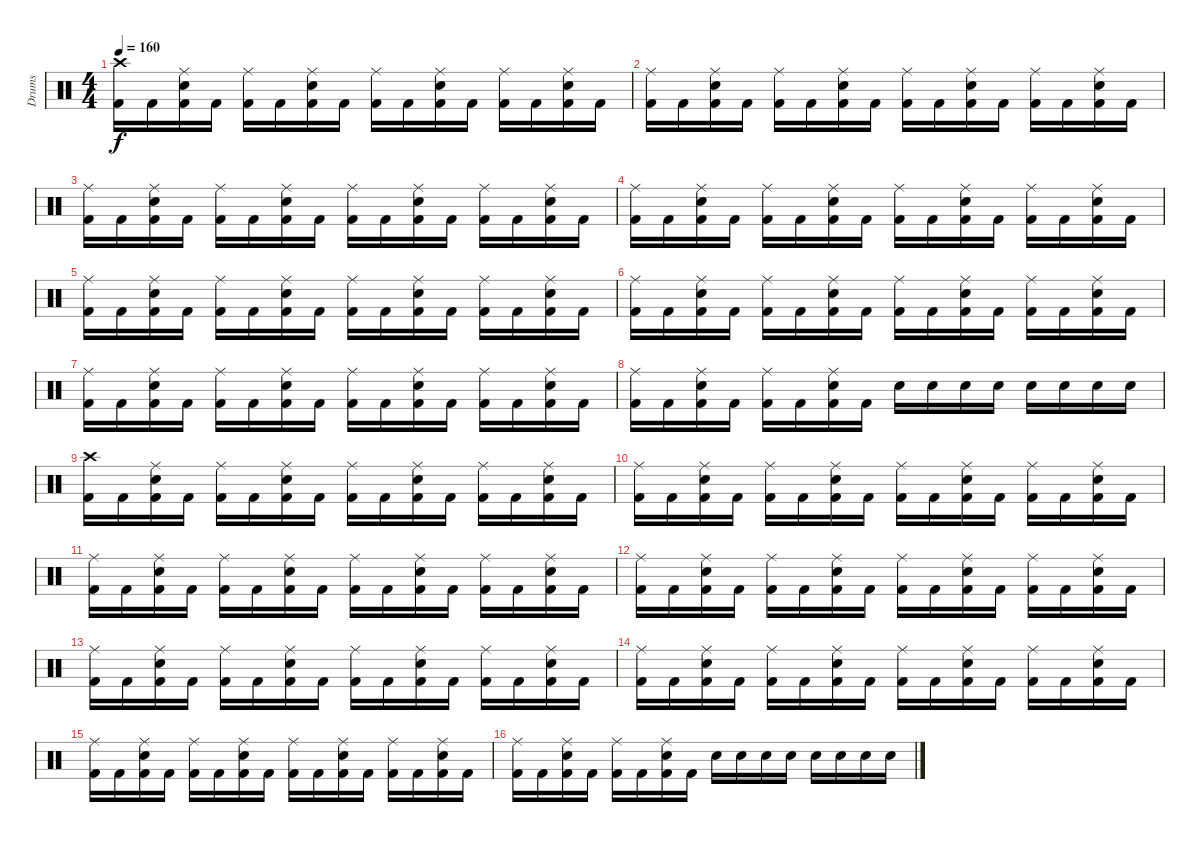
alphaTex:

\track ("Drums" "Drums") {instrument percussion}
\staff {score}
\articulation defaults
\ts (4 4)
\tempo 160
\clef neutral
\ks c
("Crash high (hit)" "Kick (hit) 2").16{dy f} "Kick (hit) 2".16 ("Ride (middle)" "Electric Snare (hit)" "Kick (hit) 2").16 "Kick (hit) 2".16 ("Ride (middle)" "Kick (hit) 2").16 "Kick (hit) 2".16 ("Ride (middle)" "Electric Snare (hit)" "Kick (hit) 2").16 "Kick (hit) 2".16 ("Ride (middle)" "Kick (hit) 2").16 "Kick (hit) 2".16 ("Ride (middle)" "Electric Snare (hit)" "Kick (hit) 2").16 "Kick (hit) 2".16 ("Ride (middle)" "Kick (hit) 2").16 "Kick (hit) 2".16 ("Ride (middle)" "Electric Snare (hit)" "Kick (hit) 2").16 "Kick (hit) 2".16 |
("Ride (middle)" "Kick (hit) 2").16 "Kick (hit) 2".16 ("Ride (middle)" "Electric Snare (hit)" "Kick (hit) 2").16 "Kick (hit) 2".16 ("Ride (middle)" "Kick (hit) 2").16 "Kick (hit) 2".16 ("Ride (middle)" "Electric Snare (hit)" "Kick (hit) 2").16 "Kick (hit) 2".16 ("Ride (middle)" "Kick (hit) 2").16 "Kick (hit) 2".16 ("Ride (middle)" "Electric Snare (hit)" "Kick (hit) 2").16 "Kick (hit) 2".16 ("Ride (middle)" "Kick (hit) 2").16 "Kick (hit) 2".16 ("Ride (middle)" "Electric Snare (hit)" "Kick (hit) 2").16 "Kick (hit) 2".16 |
("Ride (middle)" "Kick (hit) 2").16 "Kick (hit) 2".16 ("Ride (middle)" "Electric Snare (hit)" "Kick (hit) 2").16 "Kick (hit) 2".16 ("Ride (middle)" "Kick (hit) 2").16 "Kick (hit) 2".16 ("Ride (middle)" "Electric Snare (hit)" "Kick (hit) 2").16 "Kick (hit) 2".16 ("Ride (middle)" "Kick (hit) 2").16 "Kick (hit) 2".16 ("Ride (middle)" "Electric Snare (hit)" "Kick (hit) 2").16 "Kick (hit) 2".16 ("Ride (middle)" "Kick (hit) 2").16 "Kick (hit) 2".16 ("Ride (middle)" "Electric Snare (hit)" "Kick (hit) 2").16 "Kick (hit) 2".16 |
("Ride (middle)" "Kick (hit) 2").16 "Kick (hit) 2".16 ("Ride (middle)" "Electric Snare (hit)" "Kick (hit) 2").16 "Kick (hit) 2".16 ("Ride (middle)" "Kick (hit) 2").16 "Kick (hit) 2".16 ("Ride (middle)" "Electric Snare (hit)" "Kick (hit) 2").16 "Kick (hit) 2".16 ("Ride (middle)" "Kick (hit) 2").16 "Kick (hit) 2".16 ("Ride (middle)" "Electric Snare (hit)" "Kick (hit) 2").16 "Kick (hit) 2".16 ("Ride (middle)" "Kick (hit) 2").16 "Kick (hit) 2".16 ("Ride (middle)" "Electric Snare (hit)" "Kick (hit) 2").16 "Kick (hit) 2".16 |
("Ride (middle)" "Kick (hit) 2").16 "Kick (hit) 2".16 ("Ride (middle)" "Electric Snare (hit)" "Kick (hit) 2").16 "Kick (hit) 2".16 ("Ride (middle)" "Kick (hit) 2").16 "Kick (hit) 2".16 ("Ride (middle)" "Electric Snare (hit)" "Kick (hit) 2").16 "Kick (hit) 2".16 ("Ride (middle)" "Kick (hit) 2").16 "Kick (hit) 2".16 ("Ride (middle)" "Electric Snare (hit)" "Kick (hit) 2").16 "Kick (hit) 2".16 ("Ride (middle)" "Kick (hit) 2").16 "Kick (hit) 2".16 ("Ride (middle)" "Electric Snare (hit)" "Kick (hit) 2").16 "Kick (hit) 2".16 |
("Ride (middle)" "Kick (hit) 2").16 "Kick (hit) 2".16 ("Ride (middle)" "Electric Snare (hit)" "Kick (hit) 2").16 "Kick (hit) 2".16 ("Ride (middle)" "Kick (hit) 2").16 "Kick (hit) 2".16 ("Ride (middle)" "Electric Snare (hit)" "Kick (hit) 2").16 "Kick (hit) 2".16 ("Ride (middle)" "Kick (hit) 2").16 "Kick (hit) 2".16 ("Ride (middle)" "Electric Snare (hit)" "Kick (hit) 2").16 "Kick (hit) 2".16 ("Ride (middle)" "Kick (hit) 2").16 "Kick (hit) 2".16 ("Ride (middle)" "Electric Snare (hit)" "Kick (hit) 2").16 "Kick (hit) 2".16 |
("Ride (middle)" "Kick (hit) 2").16 "Kick (hit) 2".16 ("Ride (middle)" "Electric Snare (hit)" "Kick (hit) 2").16 "Kick (hit) 2".16 ("Ride (middle)" "Kick (hit) 2").16 "Kick (hit) 2".16 ("Ride (middle)" "Electric Snare (hit)" "Kick (hit) 2").16 "Kick (hit) 2".16 ("Ride (middle)" "Kick (hit) 2").16 "Kick (hit) 2".16 ("Ride (middle)" "Electric Snare (hit)" "Kick (hit) 2").16 "Kick (hit) 2".16 ("Ride (middle)" "Kick (hit) 2").16 "Kick (hit) 2".16 ("Ride (middle)" "Electric Snare (hit)" "Kick (hit) 2").16 "Kick (hit) 2".16 |
("Ride (middle)" "Kick (hit) 2").16 "Kick (hit) 2".16 ("Ride (middle)" "Electric Snare (hit)" "Kick (hit) 2").16 "Kick (hit) 2".16 ("Ride (middle)" "Kick (hit) 2").16 "Kick (hit) 2".16 ("Ride (middle)" "Electric Snare (hit)" "Kick (hit) 2").16 "Kick (hit) 2".16 "Electric Snare (hit)".16 "Electric Snare (hit)".16 "Electric Snare (hit)".16 "Electric Snare (hit)".16 "Electric Snare (hit)".16 "Electric Snare (hit)".16 "Electric Snare (hit)".16 "Electric Snare (hit)".16 |
("Crash high (hit)" "Kick (hit) 2").16 "Kick (hit) 2".16 ("Ride (middle)" "Electric Snare (hit)" "Kick (hit) 2").16 "Kick (hit) 2".16 ("Ride (middle)" "Kick (hit) 2").16 "Kick (hit) 2".16 ("Ride (middle)" "Electric Snare (hit)" "Kick (hit) 2").16 "Kick (hit) 2".16 ("Ride (middle)" "Kick (hit) 2").16 "Kick (hit) 2".16 ("Ride (middle)" "Electric Snare (hit)" "Kick (hit) 2").16 "Kick (hit) 2".16 ("Ride (middle)" "Kick (hit) 2").16 "Kick (hit) 2".16 ("Ride (middle)" "Electric Snare (hit)" "Kick (hit) 2").16 "Kick (hit) 2".16 |
("Ride (middle)" "Kick (hit) 2").16 "Kick (hit) 2".16 ("Ride (middle)" "Electric Snare (hit)" "Kick (hit) 2").16 "Kick (hit) 2".16 ("Ride (middle)" "Kick (hit) 2").16 "Kick (hit) 2".16 ("Ride (middle)" "Electric Snare (hit)" "Kick (hit) 2").16 "Kick (hit) 2".16 ("Ride (middle)" "Kick (hit) 2").16 "Kick (hit) 2".16 ("Ride (middle)" "Electric Snare (hit)" "Kick (hit) 2").16 "Kick (hit) 2".16 ("Ride (middle)" "Kick (hit) 2").16 "Kick (hit) 2".16 ("Ride (middle)" "Electric Snare (hit)" "Kick (hit) 2").16 "Kick (hit) 2".16 |
("Ride (middle)" "Kick (hit) 2").16 "Kick (hit) 2".16 ("Ride (middle)" "Electric Snare (hit)" "Kick (hit) 2").16 "Kick (hit) 2".16 ("Ride (middle)" "Kick (hit) 2").16 "Kick (hit) 2".16 ("Ride (middle)" "Electric Snare (hit)" "Kick (hit) 2").16 "Kick (hit) 2".16 ("Ride (middle)" "Kick (hit) 2").16 "Kick (hit) 2".16 ("Ride (middle)" "Electric Snare (hit)" "Kick (hit) 2").16 "Kick (hit) 2".16 ("Ride (middle)" "Kick (hit) 2").16 "Kick (hit) 2".16 ("Ride (middle)" "Electric Snare (hit)" "Kick (hit) 2").16 "Kick (hit) 2".16 |
("Ride (middle)" "Kick (hit) 2").16 "Kick (hit) 2".16 ("Ride (middle)" "Electric Snare (hit)" "Kick (hit) 2").16 "Kick (hit) 2".16 ("Ride (middle)" "Kick (hit) 2").16 "Kick (hit) 2".16 ("Ride (middle)" "Electric Snare (hit)" "Kick (hit) 2").16 "Kick (hit) 2".16 ("Ride (middle)" "Kick (hit) 2").16 "Kick (hit) 2".16 ("Ride (middle)" "Electric Snare (hit)" "Kick (hit) 2").16 "Kick (hit) 2".16 ("Ride (middle)" "Kick (hit) 2").16 "Kick (hit) 2".16 ("Ride (middle)" "Electric Snare (hit)" "Kick (hit) 2").16 "Kick (hit) 2".16 |
("Ride (middle)" "Kick (hit) 2").16 "Kick (hit) 2".16 ("Ride (middle)" "Electric Snare (hit)" "Kick (hit) 2").16 "Kick (hit) 2".16 ("Ride (middle)" "Kick (hit) 2").16 "Kick (hit) 2".16 ("Ride (middle)" "Electric Snare (hit)" "Kick (hit) 2").16 "Kick (hit) 2".16 ("Ride (middle)" "Kick (hit) 2").16 "Kick (hit) 2".16 ("Ride (middle)" "Electric Snare (hit)" "Kick (hit) 2").16 "Kick (hit) 2".16 ("Ride (middle)" "Kick (hit) 2").16 "Kick (hit) 2".16 ("Ride (middle)" "Electric Snare (hit)" "Kick (hit) 2").16 "Kick (hit) 2".16 |
("Ride (middle)" "Kick (hit) 2").16 "Kick (hit) 2".16 ("Ride (middle)" "Electric Snare (hit)" "Kick (hit) 2").16 "Kick (hit) 2".16 ("Ride (middle)" "Kick (hit) 2").16 "Kick (hit) 2".16 ("Ride (middle)" "Electric Snare (hit)" "Kick (hit) 2").16 "Kick (hit) 2".16 ("Ride (middle)" "Kick (hit) 2").16 "Kick (hit) 2".16 ("Ride (middle)" "Electric Snare (hit)" "Kick (hit) 2").16 "Kick (hit) 2".16 ("Ride (middle)" "Kick (hit) 2").16 "Kick (hit) 2".16 ("Ride (middle)" "Electric Snare (hit)" "Kick (hit) 2").16 "Kick (hit) 2".16 |
("Ride (middle)" "Kick (hit) 2").16 "Kick (hit) 2".16 ("Ride (middle)" "Electric Snare (hit)" "Kick (hit) 2").16 "Kick (hit) 2".16 ("Ride (middle)" "Kick (hit) 2").16 "Kick (hit) 2".16 ("Ride (middle)" "Electric Snare (hit)" "Kick (hit) 2").16 "Kick (hit) 2".16 ("Ride (middle)" "Kick (hit) 2").16 "Kick (hit) 2".16 ("Ride (middle)" "Electric Snare (hit)" "Kick (hit) 2").16 "Kick (hit) 2".16 ("Ride (middle)" "Kick (hit) 2").16 "Kick (hit) 2".16 ("Ride (middle)" "Electric Snare (hit)" "Kick (hit) 2").16 "Kick (hit) 2".16 |
("Ride (middle)" "Kick (hit) 2").16 "Kick (hit) 2".16 ("Ride (middle)" "Electric Snare (hit)" "Kick (hit) 2").16 "Kick (hit) 2".16 ("Ride (middle)" "Kick (hit) 2").16 "Kick (hit) 2".16 ("Ride (middle)" "Electric Snare (hit)" "Kick (hit) 2").16 "Kick (hit) 2".16 "Electric Snare (hit)".16 "Electric Snare (hit)".16 "Electric Snare (hit)".16 "Electric Snare (hit)".16 "Electric Snare (hit)".16 "Electric Snare (hit)".16 "Electric Snare (hit)".16 "Electric Snare (hit)".16
